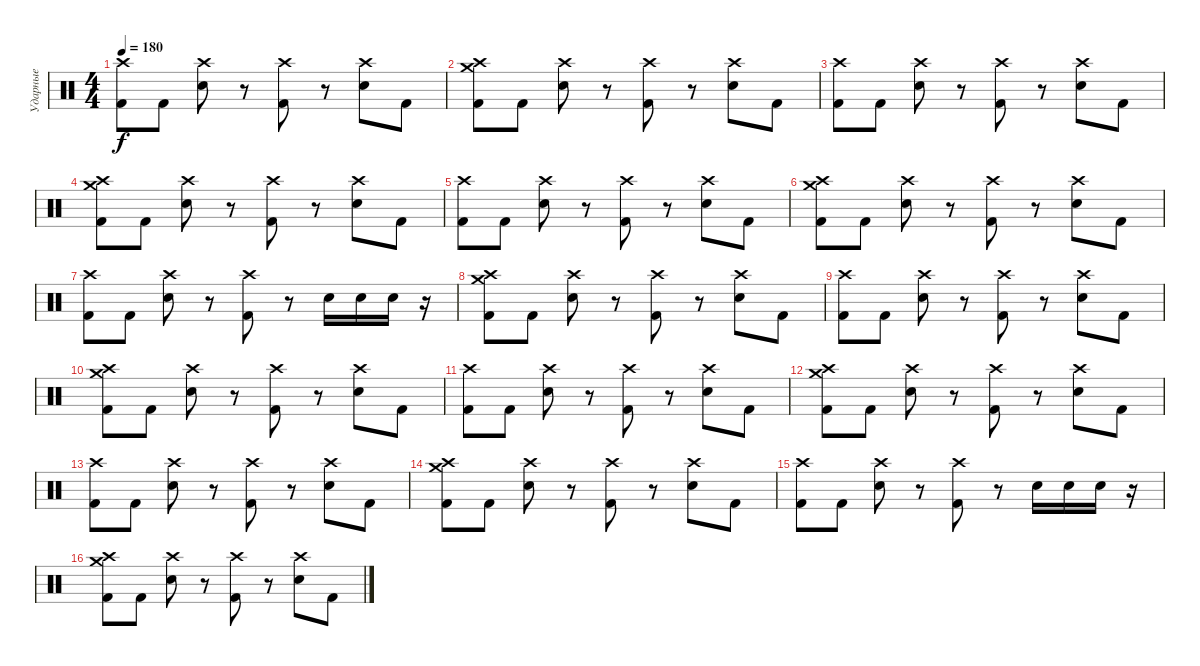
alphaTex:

\track ("Ударные" "Ударные") {instrument percussion}
\staff {score}
\articulation defaults
\ts (4 4)
\tempo 180
\clef neutral
\ks c
("Crash high (hit)" "Kick (hit) 2").8{dy f} "Kick (hit) 2".8 ("Crash high (hit)" "Snare (hit) 2").8 r.8 ("Crash high (hit)" "Kick (hit) 2").8 r.8 ("Crash high (hit)" "Snare (hit) 2").8 "Kick (hit) 2".8 |
("Crash medium (hit)" "Crash high (hit)" "Kick (hit) 2").8 "Kick (hit) 2".8 ("Crash high (hit)" "Snare (hit) 2").8 r.8 ("Crash high (hit)" "Kick (hit) 2").8 r.8 ("Crash high (hit)" "Snare (hit) 2").8 "Kick (hit) 2".8 |
("Crash high (hit)" "Kick (hit) 2").8 "Kick (hit) 2".8 ("Crash high (hit)" "Snare (hit) 2").8 r.8 ("Crash high (hit)" "Kick (hit) 2").8 r.8 ("Crash high (hit)" "Snare (hit) 2").8 "Kick (hit) 2".8 |
("Crash medium (hit)" "Crash high (hit)" "Kick (hit) 2").8 "Kick (hit) 2".8 ("Crash high (hit)" "Snare (hit) 2").8 r.8 ("Crash high (hit)" "Kick (hit) 2").8 r.8 ("Crash high (hit)" "Snare (hit) 2").8 "Kick (hit) 2".8 |
("Crash high (hit)" "Kick (hit) 2").8 "Kick (hit) 2".8 ("Crash high (hit)" "Snare (hit) 2").8 r.8 ("Crash high (hit)" "Kick (hit) 2").8 r.8 ("Crash high (hit)" "Snare (hit) 2").8 "Kick (hit) 2".8 |
("Crash medium (hit)" "Crash high (hit)" "Kick (hit) 2").8 "Kick (hit) 2".8 ("Crash high (hit)" "Snare (hit) 2").8 r.8 ("Crash high (hit)" "Kick (hit) 2").8 r.8 ("Crash high (hit)" "Snare (hit) 2").8 "Kick (hit) 2".8 |
("Crash high (hit)" "Kick (hit) 2").8 "Kick (hit) 2".8 ("Crash high (hit)" "Snare (hit) 2").8 r.8 ("Crash high (hit)" "Kick (hit) 2").8 r.8 "Snare (hit) 2".16 "Snare (hit) 2".16 "Snare (hit) 2".16 r.16 |
("Crash medium (hit)" "Crash high (hit)" "Kick (hit) 2").8 "Kick (hit) 2".8 ("Crash high (hit)" "Snare (hit) 2").8 r.8 ("Crash high (hit)" "Kick (hit) 2").8 r.8 ("Crash high (hit)" "Snare (hit) 2").8 "Kick (hit) 2".8 |
("Crash high (hit)" "Kick (hit) 2").8 "Kick (hit) 2".8 ("Crash high (hit)" "Snare (hit) 2").8 r.8 ("Crash high (hit)" "Kick (hit) 2").8 r.8 ("Crash high (hit)" "Snare (hit) 2").8 "Kick (hit) 2".8 |
("Crash medium (hit)" "Crash high (hit)" "Kick (hit) 2").8 "Kick (hit) 2".8 ("Crash high (hit)" "Snare (hit) 2").8 r.8 ("Crash high (hit)" "Kick (hit) 2").8 r.8 ("Crash high (hit)" "Snare (hit) 2").8 "Kick (hit) 2".8 |
("Crash high (hit)" "Kick (hit) 2").8 "Kick (hit) 2".8 ("Crash high (hit)" "Snare (hit) 2").8 r.8 ("Crash high (hit)" "Kick (hit) 2").8 r.8 ("Crash high (hit)" "Snare (hit) 2").8 "Kick (hit) 2".8 |
("Crash medium (hit)" "Crash high (hit)" "Kick (hit) 2").8 "Kick (hit) 2".8 ("Crash high (hit)" "Snare (hit) 2").8 r.8 ("Crash high (hit)" "Kick (hit) 2").8 r.8 ("Crash high (hit)" "Snare (hit) 2").8 "Kick (hit) 2".8 |
("Crash high (hit)" "Kick (hit) 2").8 "Kick (hit) 2".8 ("Crash high (hit)" "Snare (hit) 2").8 r.8 ("Crash high (hit)" "Kick (hit) 2").8 r.8 ("Crash high (hit)" "Snare (hit) 2").8 "Kick (hit) 2".8 |
("Crash medium (hit)" "Crash high (hit)" "Kick (hit) 2").8 "Kick (hit) 2".8 ("Crash high (hit)" "Snare (hit) 2").8 r.8 ("Crash high (hit)" "Kick (hit) 2").8 r.8 ("Crash high (hit)" "Snare (hit) 2").8 "Kick (hit) 2".8 |
("Crash high (hit)" "Kick (hit) 2").8 "Kick (hit) 2".8 ("Crash high (hit)" "Snare (hit) 2").8 r.8 ("Crash high (hit)" "Kick (hit) 2").8 r.8 "Snare (hit) 2".16 "Snare (hit) 2".16 "Snare (hit) 2".16 r.16 |
("Crash medium (hit)" "Crash high (hit)" "Kick (hit) 2").8 "Kick (hit) 2".8 ("Crash high (hit)" "Snare (hit) 2").8 r.8 ("Crash high (hit)" "Kick (hit) 2").8 r.8 ("Crash high (hit)" "Snare (hit) 2").8 "Kick (hit) 2".8
